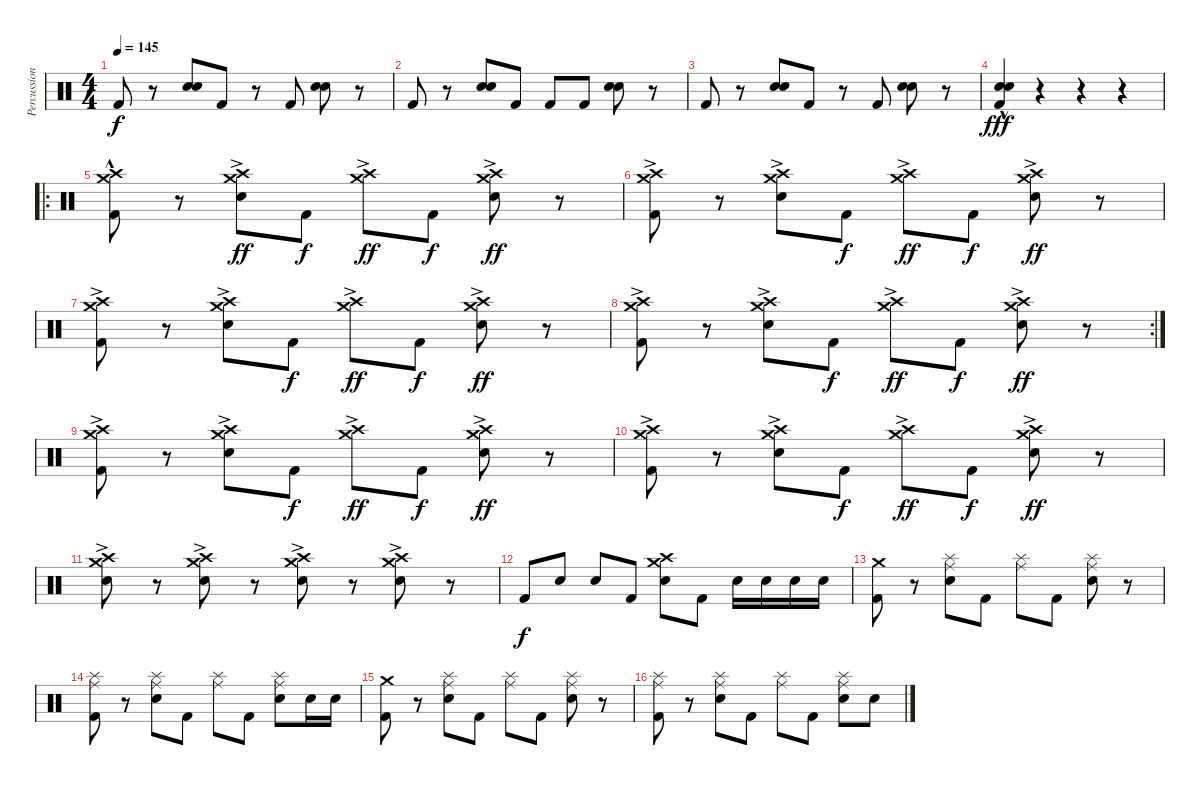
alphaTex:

\track ("Percussion" "Percussion") {instrument percussion}
\staff {score}
\articulation defaults
\ts (4 4)
\tempo 145
\clef neutral
\ks c "Kick (hit) 2".8{dy f}
r.8 ("Snare (hit) 2" "Electric Snare (hit)").8 "Kick (hit) 2".8 r.8 "Kick (hit) 2".8 ("Snare (hit) 2" "Electric Snare (hit)").8 r.8 |
"Kick (hit) 2".8 r.8 ("Snare (hit) 2" "Electric Snare (hit)").8 "Kick (hit) 2".8 "Kick (hit) 2".8 "Kick (hit) 2".8 ("Snare (hit) 2" "Electric Snare (hit)").8 r.8 |
"Kick (hit) 2".8 r.8 ("Snare (hit) 2" "Electric Snare (hit)").8 "Kick (hit) 2".8 r.8 "Kick (hit) 2".8 ("Snare (hit) 2" "Electric Snare (hit)").8 r.8 |
("Snare (hit) 2" "Kick (hit) 2" "Electric Snare (hit)"{hac}).4{dy fff} r.4 r.4 r.4 |
\ro
("Crash high (hit)"{hac} "Crash medium (hit)"{hac} "Kick (hit) 2"{hac}).8 r.8 ("Crash high (hit)"{ac} "Crash medium (hit)"{ac} "Electric Snare (hit)").8{dy ff} "Kick (hit) 2".8{dy f} ("Crash high (hit)"{ac} "Crash medium (hit)"{ac}).8{dy ff} "Kick (hit) 2".8{dy f} ("Crash high (hit)"{ac} "Crash medium (hit)"{ac} "Electric Snare (hit)").8{dy ff} r.8 |
("Crash high (hit)"{ac} "Crash medium (hit)"{ac} "Kick (hit) 2").8 r.8 ("Crash high (hit)"{ac} "Crash medium (hit)"{ac} "Electric Snare (hit)").8 "Kick (hit) 2".8{dy f} ("Crash high (hit)"{ac} "Crash medium (hit)"{ac}).8{dy ff} "Kick (hit) 2".8{dy f} ("Crash high (hit)"{ac} "Crash medium (hit)"{ac} "Electric Snare (hit)").8{dy ff} r.8 |
("Crash high (hit)"{ac} "Crash medium (hit)"{ac} "Kick (hit) 2").8 r.8 ("Crash high (hit)"{ac} "Crash medium (hit)"{ac} "Electric Snare (hit)").8 "Kick (hit) 2".8{dy f} ("Crash high (hit)"{ac} "Crash medium (hit)"{ac}).8{dy ff} "Kick (hit) 2".8{dy f} ("Crash high (hit)"{ac} "Crash medium (hit)"{ac} "Electric Snare (hit)").8{dy ff} r.8 |
\rc 2
("Crash high (hit)"{ac} "Crash medium (hit)"{ac} "Kick (hit) 2").8 r.8 ("Crash high (hit)"{ac} "Crash medium (hit)"{ac} "Electric Snare (hit)").8 "Kick (hit) 2".8{dy f} ("Crash high (hit)"{ac} "Crash medium (hit)"{ac}).8{dy ff} "Kick (hit) 2".8{dy f} ("Crash high (hit)"{ac} "Crash medium (hit)"{ac} "Electric Snare (hit)").8{dy ff} r.8 |
("Crash high (hit)"{ac} "Crash medium (hit)"{ac} "Kick (hit) 2").8 r.8 ("Crash high (hit)"{ac} "Crash medium (hit)"{ac} "Electric Snare (hit)").8 "Kick (hit) 2".8{dy f} ("Crash high (hit)"{ac} "Crash medium (hit)"{ac}).8{dy ff} "Kick (hit) 2".8{dy f} ("Crash high (hit)"{ac} "Crash medium (hit)"{ac} "Electric Snare (hit)").8{dy ff} r.8 |
("Crash high (hit)"{ac} "Crash medium (hit)"{ac} "Kick (hit) 2").8 r.8 ("Crash high (hit)"{ac} "Crash medium (hit)"{ac} "Electric Snare (hit)").8 "Kick (hit) 2".8{dy f} ("Crash high (hit)"{ac} "Crash medium (hit)"{ac}).8{dy ff} "Kick (hit) 2".8{dy f} ("Crash high (hit)"{ac} "Crash medium (hit)"{ac} "Electric Snare (hit)").8{dy ff} r.8 |
("Crash high (hit)"{ac} "Crash medium (hit)"{ac} "Electric Snare (hit)").8 r.8 ("Crash high (hit)"{ac} "Crash medium (hit)"{ac} "Electric Snare (hit)").8 r.8 ("Crash high (hit)"{ac} "Crash medium (hit)"{ac} "Electric Snare (hit)").8 r.8 ("Crash high (hit)"{ac} "Crash medium (hit)"{ac} "Electric Snare (hit)").8 r.8 |
"Kick (hit) 2".8{dy f} "Electric Snare (hit)".8 "Electric Snare (hit)".8 "Kick (hit) 2".8 ("Crash high (hit)" "Crash medium (hit)" "Electric Snare (hit)").8 "Kick (hit) 2".8 "Electric Snare (hit)".16 "Electric Snare (hit)".16 "Electric Snare (hit)".16 "Electric Snare (hit)".16 |
("Crash medium (hit)" "Kick (hit) 2").8 r.8 ("Ride (middle)" "Splash (hit)" "Electric Snare (hit)").8 "Kick (hit) 2".8 ("Ride (middle)" "Splash (hit)").8 "Kick (hit) 2".8 ("Ride (middle)" "Splash (hit)" "Electric Snare (hit)").8 r.8 |
("Ride (middle)" "Splash (hit)" "Kick (hit) 2").8 r.8 ("Ride (middle)" "Splash (hit)" "Electric Snare (hit)").8 "Kick (hit) 2".8 ("Ride (middle)" "Splash (hit)").8 "Kick (hit) 2".8 ("Ride (middle)" "Splash (hit)" "Electric Snare (hit)").8 "Electric Snare (hit)".16 "Electric Snare (hit)".16 |
("Crash medium (hit)" "Kick (hit) 2").8 r.8 ("Ride (middle)" "Splash (hit)" "Electric Snare (hit)").8 "Kick (hit) 2".8 ("Ride (middle)" "Splash (hit)").8 "Kick (hit) 2".8 ("Ride (middle)" "Splash (hit)" "Electric Snare (hit)").8 r.8 |
("Ride (middle)" "Splash (hit)" "Kick (hit) 2").8 r.8 ("Ride (middle)" "Splash (hit)" "Electric Snare (hit)").8 "Kick (hit) 2".8 ("Ride (middle)" "Splash (hit)").8 "Kick (hit) 2".8 ("Ride (middle)" "Splash (hit)" "Electric Snare (hit)").8 "Electric Snare (hit)".8
